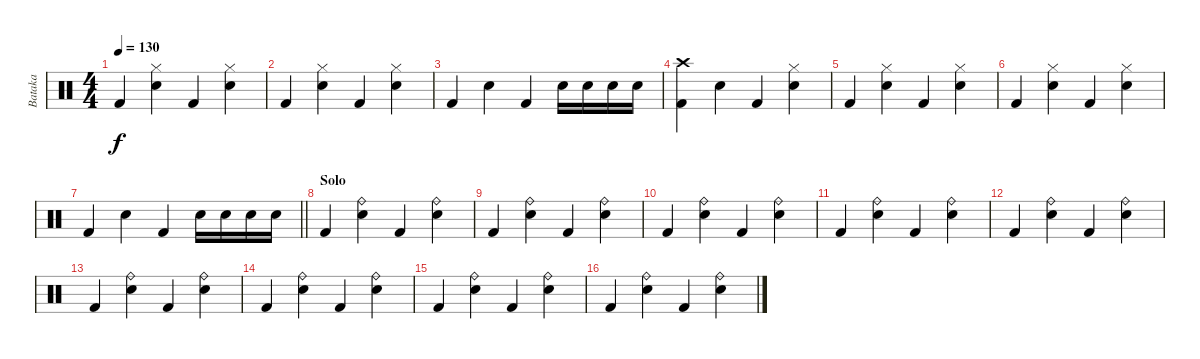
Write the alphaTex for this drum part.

\track ("Bataka" "Bataka") {instrument percussion}
\staff {score}
\articulation defaults
\ts (4 4)
\tempo 130
\clef neutral
\ks c "Kick (hit) 2".4{dy f}
("Hi-Hat (closed)" "Snare (hit) 2").4 "Kick (hit) 2".4 ("Hi-Hat (closed)" "Snare (hit) 2").4 |
"Kick (hit) 2".4 ("Hi-Hat (closed)" "Snare (hit) 2").4 "Kick (hit) 2".4 ("Hi-Hat (closed)" "Snare (hit) 2").4 |
"Kick (hit) 2".4 "Snare (hit) 2".4 "Kick (hit) 2".4 "Snare (hit) 2".16 "Snare (hit) 2".16 "Snare (hit) 2".16 "Snare (hit) 2".16 |
("Crash high (hit)" "Kick (hit) 2").4 "Snare (hit) 2".4 "Kick (hit) 2".4 ("Hi-Hat (closed)" "Snare (hit) 2").4 |
"Kick (hit) 2".4 ("Hi-Hat (closed)" "Snare (hit) 2").4 "Kick (hit) 2".4 ("Hi-Hat (closed)" "Snare (hit) 2").4 |
"Kick (hit) 2".4 ("Hi-Hat (closed)" "Snare (hit) 2").4 "Kick (hit) 2".4 ("Hi-Hat (closed)" "Snare (hit) 2").4 |
\barLineRight lightlight "Kick (hit) 2".4 "Snare (hit) 2".4 "Kick (hit) 2".4 "Snare (hit) 2".16 "Snare (hit) 2".16 "Snare (hit) 2".16 "Snare (hit) 2".16
|
\section ("" "Solo")
"Kick (hit) 2".4 ("Ride (bell)" "Snare (hit) 2").4 "Kick (hit) 2".4 ("Ride (bell)" "Snare (hit) 2").4 |
"Kick (hit) 2".4 ("Ride (bell)" "Snare (hit) 2").4 "Kick (hit) 2".4 ("Ride (bell)" "Snare (hit) 2").4 |
"Kick (hit) 2".4 ("Ride (bell)" "Snare (hit) 2").4 "Kick (hit) 2".4 ("Ride (bell)" "Snare (hit) 2").4 |
"Kick (hit) 2".4 ("Ride (bell)" "Snare (hit) 2").4 "Kick (hit) 2".4 ("Ride (bell)" "Snare (hit) 2").4 |
"Kick (hit) 2".4 ("Ride (bell)" "Snare (hit) 2").4 "Kick (hit) 2".4 ("Ride (bell)" "Snare (hit) 2").4 |
"Kick (hit) 2".4 ("Ride (bell)" "Snare (hit) 2").4 "Kick (hit) 2".4 ("Ride (bell)" "Snare (hit) 2").4 |
"Kick (hit) 2".4 ("Ride (bell)" "Snare (hit) 2").4 "Kick (hit) 2".4 ("Ride (bell)" "Snare (hit) 2").4 |
"Kick (hit) 2".4 ("Ride (bell)" "Snare (hit) 2").4 "Kick (hit) 2".4 ("Ride (bell)" "Snare (hit) 2").4 |
"Kick (hit) 2".4 ("Ride (bell)" "Snare (hit) 2").4 "Kick (hit) 2".4 ("Ride (bell)" "Snare (hit) 2").4
